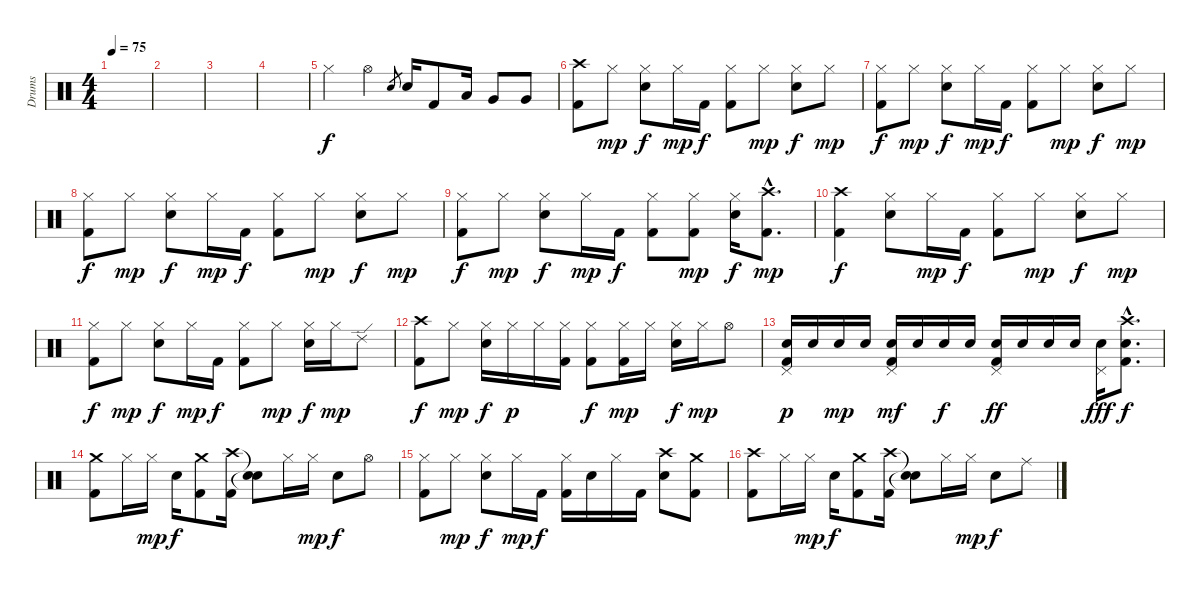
\track ("Drums" "Drums") {instrument percussion}
\staff {score}
\articulation defaults
\ts (4 4)
\tempo 75
\clef neutral
\ks c
|
|
|
|
"Hi-Hat (closed)".4 "Hi-Hat (open)".4 "Electric Snare (hit)".8{gr} "Electric Snare (hit)".16 "Kick (hit) 2".8 "Low Tom (hit)".16 "Very Low Tom (hit)".8 "Very Low Tom (hit)".8 |
("Crash high (hit)" "Kick (hit) 2").8 "Hi-Hat (closed)".8{dy mp} ("Hi-Hat (closed)" "Electric Snare (hit)").8{dy f} "Hi-Hat (closed)".16{dy mp} "Kick (hit) 2".16{dy f} ("Hi-Hat (closed)" "Kick (hit) 2").8 "Hi-Hat (closed)".8{dy mp} ("Hi-Hat (closed)" "Electric Snare (hit)").8{dy f} "Hi-Hat (closed)".8{dy mp} |
("Hi-Hat (closed)" "Kick (hit) 2").8{dy f} "Hi-Hat (closed)".8{dy mp} ("Hi-Hat (closed)" "Electric Snare (hit)").8{dy f} "Hi-Hat (closed)".16{dy mp} "Kick (hit) 2".16{dy f} ("Hi-Hat (closed)" "Kick (hit) 2").8 "Hi-Hat (closed)".8{dy mp} ("Hi-Hat (closed)" "Electric Snare (hit)").8{dy f} "Hi-Hat (closed)".8{dy mp} |
("Hi-Hat (closed)" "Kick (hit) 2").8{dy f} "Hi-Hat (closed)".8{dy mp} ("Hi-Hat (closed)" "Electric Snare (hit)").8{dy f} "Hi-Hat (closed)".16{dy mp} "Kick (hit) 2".16{dy f} ("Hi-Hat (closed)" "Kick (hit) 2").8 "Hi-Hat (closed)".8{dy mp} ("Hi-Hat (closed)" "Electric Snare (hit)").8{dy f} "Hi-Hat (closed)".8{dy mp} |
("Hi-Hat (closed)" "Kick (hit) 2").8{dy f} "Hi-Hat (closed)".8{dy mp} ("Hi-Hat (closed)" "Electric Snare (hit)").8{dy f} "Hi-Hat (closed)".16{dy mp} "Kick (hit) 2".16{dy f} ("Hi-Hat (closed)" "Kick (hit) 2").8 ("Hi-Hat (closed)" "Kick (hit) 2").8{dy mp} ("Hi-Hat (closed)" "Electric Snare (hit)").16{dy f} ("Crash high (hit)"{hac} "Kick (hit) 2"{hac}).8{d dy mp} |
("Crash high (hit)" "Kick (hit) 2").4{dy f} ("Hi-Hat (closed)" "Electric Snare (hit)").8 "Hi-Hat (closed)".16{dy mp} "Kick (hit) 2".16{dy f} ("Hi-Hat (closed)" "Kick (hit) 2").8 "Hi-Hat (closed)".8{dy mp} ("Hi-Hat (closed)" "Electric Snare (hit)").8{dy f} "Hi-Hat (closed)".8{dy mp} |
("Hi-Hat (closed)" "Kick (hit) 2").8{dy f} "Hi-Hat (closed)".8{dy mp} ("Hi-Hat (closed)" "Electric Snare (hit)").8{dy f} "Hi-Hat (closed)".16{dy mp} "Kick (hit) 2".16{dy f} ("Hi-Hat (closed)" "Kick (hit) 2").8 "Hi-Hat (closed)".8{dy mp} ("Hi-Hat (closed)" "Electric Snare (hit)").16{dy f} "Hi-Hat (closed)".16{dy mp} "Ride (edge) 2".8 |
("Crash high (hit)" "Kick (hit) 2").8{dy f} "Hi-Hat (closed)".8{dy mp} ("Hi-Hat (closed)" "Electric Snare (hit)").16{dy f} "Hi-Hat (closed)".16{dy p} "Hi-Hat (closed)".16 ("Kick (hit) 2" "Hi-Hat (closed)").16 ("Hi-Hat (closed)" "Kick (hit) 2").8{dy f} ("Hi-Hat (closed)" "Kick (hit) 2").16{dy mp} "Hi-Hat (closed)".16 ("Hi-Hat (closed)" "Electric Snare (hit)").16{dy f} "Hi-Hat (closed)".16{dy mp} "Hi-Hat (open)".8 |
("Pedal Hi-Hat (hit)" "Electric Snare (hit)" "Kick (hit) 2").16{dy p} "Electric Snare (hit)".16 "Electric Snare (hit)".16{dy mp} "Electric Snare (hit)".16 ("Pedal Hi-Hat (hit)" "Electric Snare (hit)" "Kick (hit) 2").16{dy mf} "Electric Snare (hit)".16 "Electric Snare (hit)".16{dy f} "Electric Snare (hit)".16 ("Pedal Hi-Hat (hit)" "Electric Snare (hit)" "Kick (hit) 2").16{dy ff} "Electric Snare (hit)".16 "Electric Snare (hit)".16 "Electric Snare (hit)".16 ("Pedal Hi-Hat (hit)" "Electric Snare (hit)").16{dy fff} ("Crash high (hit)"{hac} "Electric Snare (hit)"{hac} "Kick (hit) 2"{hac}).8{d dy f} |
("Crash medium (hit)" "Kick (hit) 2").8 "Hi-Hat (closed)".16 "Hi-Hat (closed)".16{dy mp} "Electric Snare (hit)".16{dy f} ("Crash medium (hit)" "Kick (hit) 2").8 ("Crash high (hit)" "Kick (hit) 2").16 ("Snare (hit)"{t} "Snare (hit)"{t}).8 "Hi-Hat (closed)".16 "Hi-Hat (closed)".16{dy mp} "Electric Snare (hit)".8{dy f} "Hi-Hat (open)".8 |
("Hi-Hat (closed)" "Kick (hit) 2").8 "Hi-Hat (closed)".8{dy mp} ("Hi-Hat (closed)" "Electric Snare (hit)").8{dy f} "Hi-Hat (closed)".16{dy mp} "Kick (hit) 2".16{dy f} ("Hi-Hat (closed)" "Kick (hit) 2").16 "Electric Snare (hit)".16 "Hi-Hat (closed)".16 "Kick (hit) 2".16 ("Crash high (hit)" "Electric Snare (hit)").8 ("Crash medium (hit)" "Kick (hit) 2").8 |
("Crash high (hit)" "Kick (hit) 2").8 "Hi-Hat (closed)".16 "Hi-Hat (closed)".16{dy mp} "Electric Snare (hit)".16{dy f} ("Crash medium (hit)" "Kick (hit) 2").8 ("Crash high (hit)" "Kick (hit) 2").16 ("Snare (hit)"{t} "Snare (hit)"{t}).8 "Hi-Hat (closed)".16 "Hi-Hat (closed)".16{dy mp} "Electric Snare (hit)".8{dy f} "Ride (middle)".8
